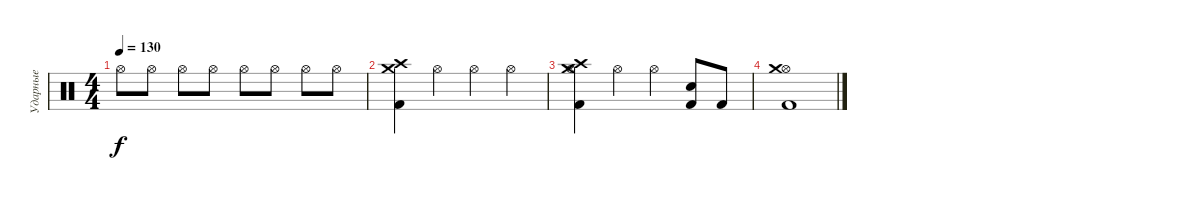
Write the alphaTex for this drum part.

\track ("Ударные" "Ударные") {instrument percussion}
\staff {score}
\articulation defaults
\ts (4 4)
\tempo 130
\clef neutral
\ks c "Hi-Hat (open)".8{dy f} "Hi-Hat (open)".8 "Hi-Hat (open)".8 "Hi-Hat (open)".8 "Hi-Hat (open)".8 "Hi-Hat (open)".8 "Hi-Hat (open)".8 "Hi-Hat (open)".8
|
("Crash medium (hit)" "Crash high (hit)" "Kick (hit) 2").4 "Hi-Hat (open)".4 "Hi-Hat (open)".4 "Hi-Hat (open)".4 |
("Hi-Hat (open)" "Crash high (hit)" "Crash medium (hit)" "Kick (hit) 2").4 "Hi-Hat (open)".4 "Hi-Hat (open)".4 ("Kick (hit) 2" "Snare (hit) 2").8 "Kick (hit) 2".8 |
("Kick (hit) 2" "Hi-Hat (open)" "Crash medium (hit)").1
